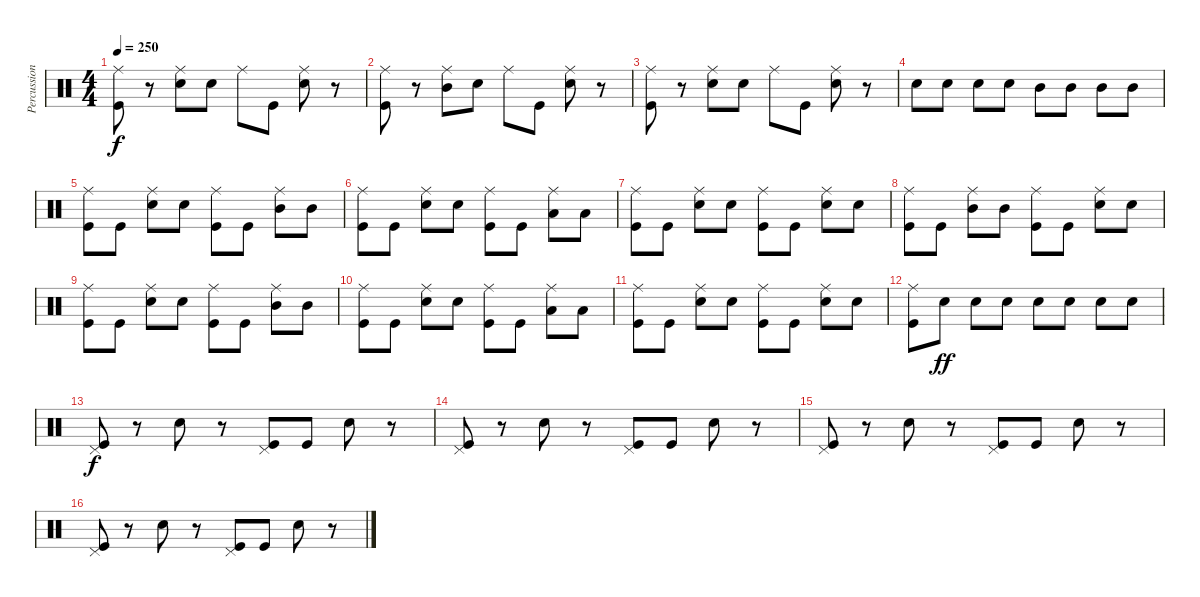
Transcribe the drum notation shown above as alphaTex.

\track ("Percussion" "Percussion") {instrument percussion}
\staff {score}
\articulation defaults
\ts (4 4)
\tempo 250
\clef neutral
\ks c
("Ride (middle)" "Kick (hit)").8{dy f} r.8 ("Ride (middle)" "Snare (hit) 2").8 "Snare (hit) 2".8 "Ride (middle)".8 "Kick (hit)".8 ("Ride (middle)" "Snare (hit) 2").8 r.8 |
("Ride (middle)" "Kick (hit)").8 r.8 ("Ride (middle)" "Mid Tom (hit)").8 "Snare (hit) 2".8 "Ride (middle)".8 "Kick (hit)".8 ("Ride (middle)" "Snare (hit) 2").8 r.8 |
("Ride (middle)" "Kick (hit)").8 r.8 ("Ride (middle)" "Snare (hit) 2").8 "Snare (hit) 2".8 "Ride (middle)".8 "Kick (hit)".8 ("Ride (middle)" "Snare (hit) 2").8 r.8 |
"Snare (hit) 2".8 "Snare (hit) 2".8 "Snare (hit) 2".8 "Snare (hit) 2".8 "Mid Tom (hit)".8 "Mid Tom (hit)".8 "Mid Tom (hit)".8 "Mid Tom (hit)".8 |
("Ride (middle)" "Kick (hit)").8 "Kick (hit)".8 ("Ride (middle)" "Snare (hit) 2").8 "Snare (hit) 2".8 ("Ride (middle)" "Kick (hit)").8 "Kick (hit)".8 ("Ride (middle)" "Mid Tom (hit)").8 "Mid Tom (hit)".8 |
("Ride (middle)" "Kick (hit)").8 "Kick (hit)".8 ("Ride (middle)" "Snare (hit) 2").8 "Snare (hit) 2".8 ("Ride (middle)" "Kick (hit)").8 "Kick (hit)".8 ("Ride (middle)" "Low Tom (hit)").8 "Low Tom (hit)".8 |
("Ride (middle)" "Kick (hit)").8 "Kick (hit)".8 ("Ride (middle)" "Snare (hit) 2").8 "Snare (hit) 2".8 ("Ride (middle)" "Kick (hit)").8 "Kick (hit)".8 ("Ride (middle)" "Snare (hit) 2").8 "Snare (hit) 2".8 |
("Ride (middle)" "Kick (hit)").8 "Kick (hit)".8 ("Ride (middle)" "Mid Tom (hit)").8 "Mid Tom (hit)".8 ("Ride (middle)" "Kick (hit)").8 "Kick (hit)".8 ("Ride (middle)" "Snare (hit) 2").8 "Snare (hit) 2".8 |
("Ride (middle)" "Kick (hit)").8 "Kick (hit)".8 ("Ride (middle)" "Snare (hit) 2").8 "Snare (hit) 2".8 ("Ride (middle)" "Kick (hit)").8 "Kick (hit)".8 ("Ride (middle)" "Mid Tom (hit)").8 "Mid Tom (hit)".8 |
("Ride (middle)" "Kick (hit)").8 "Kick (hit)".8 ("Ride (middle)" "Snare (hit) 2").8 "Snare (hit) 2".8 ("Ride (middle)" "Kick (hit)").8 "Kick (hit)".8 ("Ride (middle)" "Low Tom (hit)").8 "Low Tom (hit)".8 |
("Ride (middle)" "Kick (hit)").8 "Kick (hit)".8 ("Ride (middle)" "Snare (hit) 2").8 "Snare (hit) 2".8 ("Ride (middle)" "Kick (hit)").8 "Kick (hit)".8 ("Ride (middle)" "Snare (hit) 2").8 "Snare (hit) 2".8 |
("Ride (middle)" "Kick (hit)").8 "Snare (hit) 2".8{dy ff} "Snare (hit) 2".8 "Snare (hit) 2".8 "Snare (hit) 2".8 "Snare (hit) 2".8 "Snare (hit) 2".8 "Snare (hit) 2".8 |
("Pedal Hi-Hat (hit)" "Kick (hit)").8{dy f} r.8 "Snare (hit) 2".8 r.8 ("Pedal Hi-Hat (hit)" "Kick (hit)").8 "Kick (hit)".8 "Snare (hit) 2".8 r.8 |
("Pedal Hi-Hat (hit)" "Kick (hit)").8 r.8 "Snare (hit) 2".8 r.8 ("Pedal Hi-Hat (hit)" "Kick (hit)").8 "Kick (hit)".8 "Snare (hit) 2".8 r.8 |
("Pedal Hi-Hat (hit)" "Kick (hit)").8 r.8 "Snare (hit) 2".8 r.8 ("Pedal Hi-Hat (hit)" "Kick (hit)").8 "Kick (hit)".8 "Snare (hit) 2".8 r.8 |
("Pedal Hi-Hat (hit)" "Kick (hit)").8 r.8 "Snare (hit) 2".8 r.8 ("Pedal Hi-Hat (hit)" "Kick (hit)").8 "Kick (hit)".8 "Snare (hit) 2".8 r.8
